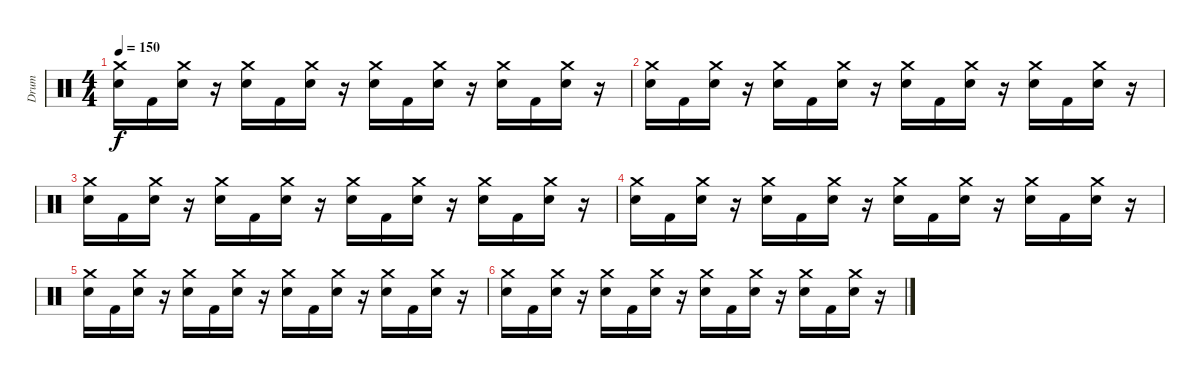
\track ("Drum" "Drum") {instrument percussion}
\staff {score}
\articulation defaults
\ts (4 4)
\tempo 150
\clef neutral
\ks c
("Electric Snare (hit)" "Crash medium (hit)").16{dy f} "Kick (hit) 2".16 ("Electric Snare (hit)" "Crash medium (hit)").16 r.16 ("Electric Snare (hit)" "Crash medium (hit)").16 "Kick (hit) 2".16 ("Electric Snare (hit)" "Crash medium (hit)").16 r.16 ("Electric Snare (hit)" "Crash medium (hit)").16 "Kick (hit) 2".16 ("Electric Snare (hit)" "Crash medium (hit)").16 r.16 ("Electric Snare (hit)" "Crash medium (hit)").16 "Kick (hit) 2".16 ("Electric Snare (hit)" "Crash medium (hit)").16 r.16 |
("Electric Snare (hit)" "Crash medium (hit)").16{volume 16} "Kick (hit) 2".16 ("Electric Snare (hit)" "Crash medium (hit)").16 r.16 ("Electric Snare (hit)" "Crash medium (hit)").16 "Kick (hit) 2".16 ("Electric Snare (hit)" "Crash medium (hit)").16 r.16 ("Electric Snare (hit)" "Crash medium (hit)").16 "Kick (hit) 2".16 ("Electric Snare (hit)" "Crash medium (hit)").16 r.16 ("Electric Snare (hit)" "Crash medium (hit)").16 "Kick (hit) 2".16 ("Electric Snare (hit)" "Crash medium (hit)").16 r.16 |
("Electric Snare (hit)" "Crash medium (hit)").16 "Kick (hit) 2".16 ("Electric Snare (hit)" "Crash medium (hit)").16 r.16 ("Electric Snare (hit)" "Crash medium (hit)").16 "Kick (hit) 2".16 ("Electric Snare (hit)" "Crash medium (hit)").16 r.16 ("Electric Snare (hit)" "Crash medium (hit)").16 "Kick (hit) 2".16 ("Electric Snare (hit)" "Crash medium (hit)").16 r.16 ("Electric Snare (hit)" "Crash medium (hit)").16 "Kick (hit) 2".16 ("Electric Snare (hit)" "Crash medium (hit)").16 r.16 |
("Electric Snare (hit)" "Crash medium (hit)").16 "Kick (hit) 2".16 ("Electric Snare (hit)" "Crash medium (hit)").16 r.16 ("Electric Snare (hit)" "Crash medium (hit)").16 "Kick (hit) 2".16 ("Electric Snare (hit)" "Crash medium (hit)").16 r.16 ("Electric Snare (hit)" "Crash medium (hit)").16 "Kick (hit) 2".16 ("Electric Snare (hit)" "Crash medium (hit)").16 r.16 ("Electric Snare (hit)" "Crash medium (hit)").16 "Kick (hit) 2".16 ("Electric Snare (hit)" "Crash medium (hit)").16{volume 0} r.16 |
("Electric Snare (hit)" "Crash medium (hit)").16 "Kick (hit) 2".16 ("Electric Snare (hit)" "Crash medium (hit)").16 r.16 ("Electric Snare (hit)" "Crash medium (hit)").16 "Kick (hit) 2".16 ("Electric Snare (hit)" "Crash medium (hit)").16 r.16 ("Electric Snare (hit)" "Crash medium (hit)").16 "Kick (hit) 2".16 ("Electric Snare (hit)" "Crash medium (hit)").16 r.16 ("Electric Snare (hit)" "Crash medium (hit)").16 "Kick (hit) 2".16 ("Electric Snare (hit)" "Crash medium (hit)").16 r.16 |
("Electric Snare (hit)" "Crash medium (hit)").16 "Kick (hit) 2".16 ("Electric Snare (hit)" "Crash medium (hit)").16 r.16 ("Electric Snare (hit)" "Crash medium (hit)").16 "Kick (hit) 2".16 ("Electric Snare (hit)" "Crash medium (hit)").16 r.16 ("Electric Snare (hit)" "Crash medium (hit)").16 "Kick (hit) 2".16 ("Electric Snare (hit)" "Crash medium (hit)").16 r.16 ("Electric Snare (hit)" "Crash medium (hit)").16 "Kick (hit) 2".16 ("Electric Snare (hit)" "Crash medium (hit)").16 r.16
